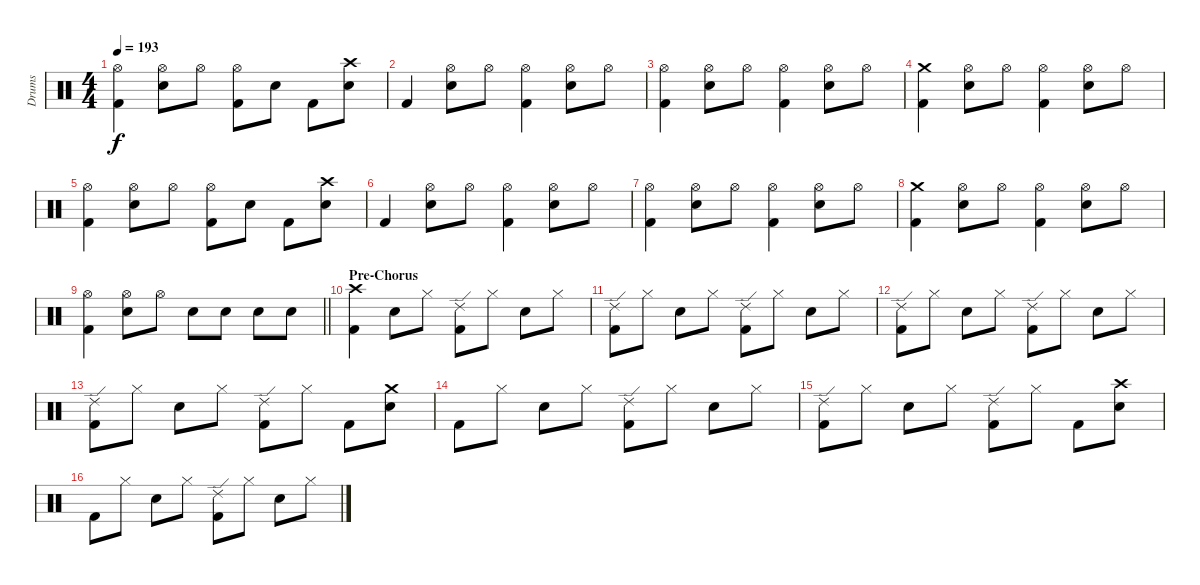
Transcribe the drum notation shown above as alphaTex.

\track ("Drums" "Drums") {instrument percussion}
\staff {score}
\articulation defaults
\ts (4 4)
\tempo 193
\clef neutral
\ks c
("Hi-Hat (open)" "Kick (hit) 2").4{dy f} ("Hi-Hat (open)" "Snare (hit) 2").8 "Hi-Hat (open)".8 ("Hi-Hat (open)" "Kick (hit) 2").8 "Snare (hit) 2".8 "Kick (hit) 2".8 ("Crash high (hit)" "Snare (hit) 2").8 |
"Kick (hit) 2".4 ("Hi-Hat (open)" "Snare (hit) 2").8 "Hi-Hat (open)".8 ("Hi-Hat (open)" "Kick (hit) 2").4 ("Hi-Hat (open)" "Snare (hit) 2").8 "Hi-Hat (open)".8 |
("Hi-Hat (open)" "Kick (hit) 2").4 ("Hi-Hat (open)" "Snare (hit) 2").8 "Hi-Hat (open)".8 ("Hi-Hat (open)" "Kick (hit) 2").4 ("Hi-Hat (open)" "Snare (hit) 2").8 "Hi-Hat (open)".8 |
("Crash medium (hit)" "Kick (hit) 2").4 ("Hi-Hat (open)" "Snare (hit) 2").8 "Hi-Hat (open)".8 ("Hi-Hat (open)" "Kick (hit) 2").4 ("Hi-Hat (open)" "Snare (hit) 2").8 "Hi-Hat (open)".8 |
("Hi-Hat (open)" "Kick (hit) 2").4 ("Hi-Hat (open)" "Snare (hit) 2").8 "Hi-Hat (open)".8 ("Hi-Hat (open)" "Kick (hit) 2").8 "Snare (hit) 2".8 "Kick (hit) 2".8 ("Crash high (hit)" "Snare (hit) 2").8 |
"Kick (hit) 2".4 ("Hi-Hat (open)" "Snare (hit) 2").8 "Hi-Hat (open)".8 ("Hi-Hat (open)" "Kick (hit) 2").4 ("Hi-Hat (open)" "Snare (hit) 2").8 "Hi-Hat (open)".8 |
("Hi-Hat (open)" "Kick (hit) 2").4 ("Hi-Hat (open)" "Snare (hit) 2").8 "Hi-Hat (open)".8 ("Hi-Hat (open)" "Kick (hit) 2").4 ("Hi-Hat (open)" "Snare (hit) 2").8 "Hi-Hat (open)".8 |
("Crash medium (hit)" "Kick (hit) 2").4 ("Hi-Hat (open)" "Snare (hit) 2").8 "Hi-Hat (open)".8 ("Hi-Hat (open)" "Kick (hit) 2").4 ("Hi-Hat (open)" "Snare (hit) 2").8 "Hi-Hat (open)".8 |
\barLineRight lightlight
("Hi-Hat (open)" "Kick (hit) 2").4 ("Hi-Hat (open)" "Snare (hit) 2").8 "Hi-Hat (open)".8 "Snare (hit) 2".8 "Snare (hit) 2".8 "Snare (hit) 2".8 "Snare (hit) 2".8 |
\section ("" "Pre-Chorus")
("Crash high (hit)" "Kick (hit) 2").4 "Snare (hit) 2".8 "Hi-Hat (closed)".8 ("Ride (edge) 2" "Kick (hit) 2").8 "Hi-Hat (closed)".8 "Snare (hit) 2".8 "Hi-Hat (closed)".8 |
("Ride (edge) 2" "Kick (hit) 2").8 "Hi-Hat (closed)".8 "Snare (hit) 2".8 "Hi-Hat (closed)".8 ("Ride (edge) 2" "Kick (hit) 2").8 "Hi-Hat (closed)".8 "Snare (hit) 2".8 "Hi-Hat (closed)".8 |
("Ride (edge) 2" "Kick (hit) 2").8 "Hi-Hat (closed)".8 "Snare (hit) 2".8 "Hi-Hat (closed)".8 ("Ride (edge) 2" "Kick (hit) 2").8 "Hi-Hat (closed)".8 "Snare (hit) 2".8 "Hi-Hat (closed)".8 |
("Ride (edge) 2" "Kick (hit) 2").8 "Hi-Hat (closed)".8 "Snare (hit) 2".8 "Hi-Hat (closed)".8 ("Ride (edge) 2" "Kick (hit) 2").8 "Hi-Hat (closed)".8 "Kick (hit) 2".8 ("Crash medium (hit)" "Snare (hit) 2").8 |
"Kick (hit) 2".8 "Hi-Hat (closed)".8 "Snare (hit) 2".8 "Hi-Hat (closed)".8 ("Ride (edge) 2" "Kick (hit) 2").8 "Hi-Hat (closed)".8 "Snare (hit) 2".8 "Hi-Hat (closed)".8 |
("Ride (edge) 2" "Kick (hit) 2").8 "Hi-Hat (closed)".8 "Snare (hit) 2".8 "Hi-Hat (closed)".8 ("Ride (edge) 2" "Kick (hit) 2").8 "Hi-Hat (closed)".8 "Kick (hit) 2".8 ("Crash high (hit)" "Snare (hit) 2").8 |
"Kick (hit) 2".8 "Hi-Hat (closed)".8 "Snare (hit) 2".8 "Hi-Hat (closed)".8 ("Ride (edge) 2" "Kick (hit) 2").8 "Hi-Hat (closed)".8 "Snare (hit) 2".8 "Hi-Hat (closed)".8
